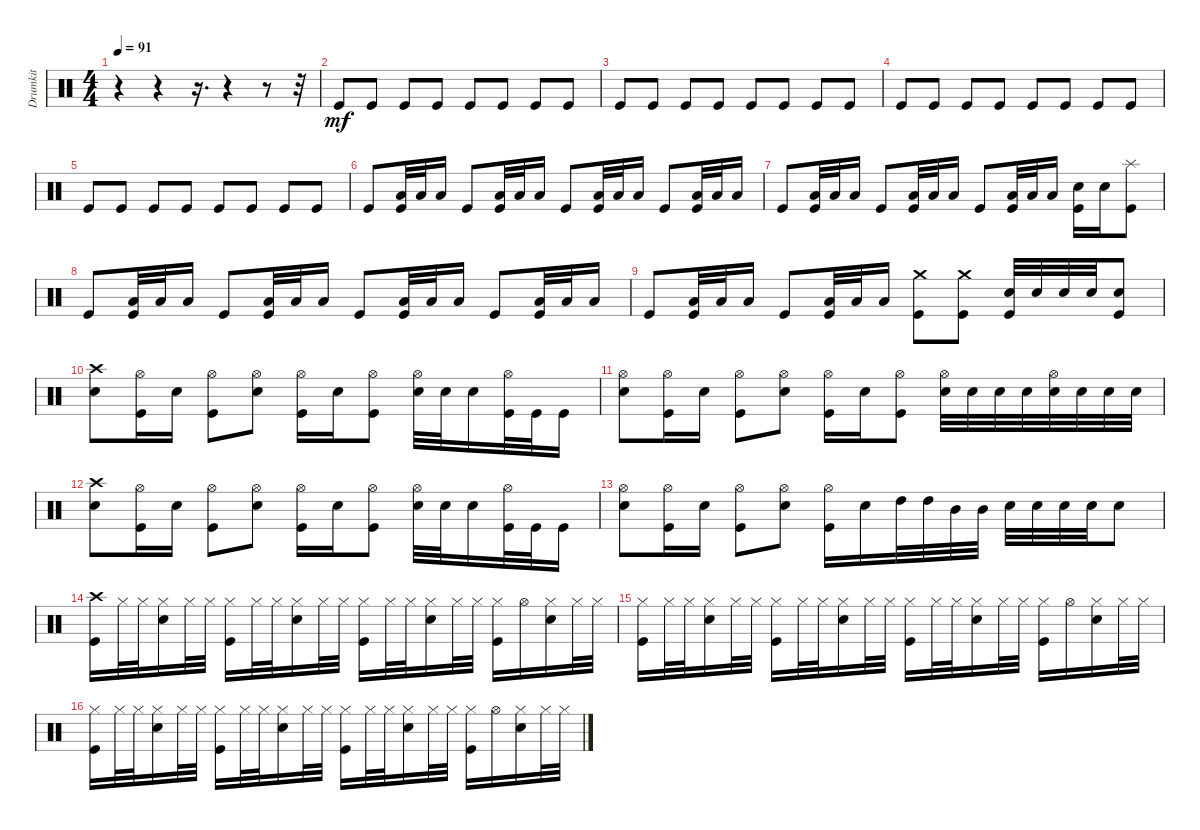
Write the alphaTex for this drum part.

\track ("Drumkit" "Drumkit") {instrument percussion}
\staff {score}
\articulation defaults
\ts (4 4)
\tempo 91
\clef neutral
\ks c
r.4{dy mf} r.4 r.16{d} r.4 r.8 r.32 |
"Kick (hit)".8 "Kick (hit)".8 "Kick (hit)".8 "Kick (hit)".8 "Kick (hit)".8 "Kick (hit)".8 "Kick (hit)".8 "Kick (hit)".8 |
"Kick (hit)".8 "Kick (hit)".8 "Kick (hit)".8 "Kick (hit)".8 "Kick (hit)".8 "Kick (hit)".8 "Kick (hit)".8 "Kick (hit)".8 |
"Kick (hit)".8 "Kick (hit)".8 "Kick (hit)".8 "Kick (hit)".8 "Kick (hit)".8 "Kick (hit)".8 "Kick (hit)".8 "Kick (hit)".8 |
"Kick (hit)".8 "Kick (hit)".8 "Kick (hit)".8 "Kick (hit)".8 "Kick (hit)".8 "Kick (hit)".8 "Kick (hit)".8 "Kick (hit)".8 |
"Kick (hit)".8 ("Low Floor Tom (hit)" "Kick (hit)").32 "Low Floor Tom (hit)".32 "Low Floor Tom (hit)".16 "Kick (hit)".8 ("Low Floor Tom (hit)" "Kick (hit)").32 "Low Floor Tom (hit)".32 "Low Floor Tom (hit)".16 "Kick (hit)".8 ("Low Floor Tom (hit)" "Kick (hit)").32 "Low Floor Tom (hit)".32 "Low Floor Tom (hit)".16 "Kick (hit)".8 ("Low Floor Tom (hit)" "Kick (hit)").32 "Low Floor Tom (hit)".32 "Low Floor Tom (hit)".16 |
"Kick (hit)".8 ("Low Floor Tom (hit)" "Kick (hit)").32 "Low Floor Tom (hit)".32 "Low Floor Tom (hit)".16 "Kick (hit)".8 ("Low Floor Tom (hit)" "Kick (hit)").32 "Low Floor Tom (hit)".32 "Low Floor Tom (hit)".16 "Kick (hit)".8 ("Low Floor Tom (hit)" "Kick (hit)").32 "Low Floor Tom (hit)".32 "Low Floor Tom (hit)".16 ("Snare (hit) 2" "Kick (hit)").16 "Snare (hit) 2".16 ("Splash (hit)" "Kick (hit)").8 |
"Kick (hit)".8 ("Low Floor Tom (hit)" "Kick (hit)").32 "Low Floor Tom (hit)".32 "Low Floor Tom (hit)".16 "Kick (hit)".8 ("Low Floor Tom (hit)" "Kick (hit)").32 "Low Floor Tom (hit)".32 "Low Floor Tom (hit)".16 "Kick (hit)".8 ("Low Floor Tom (hit)" "Kick (hit)").32 "Low Floor Tom (hit)".32 "Low Floor Tom (hit)".16 "Kick (hit)".8 ("Low Floor Tom (hit)" "Kick (hit)").32 "Low Floor Tom (hit)".32 "Low Floor Tom (hit)".16 |
"Kick (hit)".8 ("Low Floor Tom (hit)" "Kick (hit)").32 "Low Floor Tom (hit)".32 "Low Floor Tom (hit)".16 "Kick (hit)".8 ("Low Floor Tom (hit)" "Kick (hit)").32 "Low Floor Tom (hit)".32 "Low Floor Tom (hit)".16 ("Crash medium (hit)" "Kick (hit)").8 ("Crash medium (hit)" "Kick (hit)").8 ("Snare (hit) 2" "Kick (hit)").32 "Snare (hit) 2".32 "Snare (hit) 2".32 "Snare (hit) 2".32 ("Snare (hit) 2" "Kick (hit)").8 |
("Snare (hit) 2" "Crash high (hit)").8 ("Hi-Hat (open)" "Kick (hit)").16 "Snare (hit) 2".16 ("Hi-Hat (open)" "Kick (hit)").8 ("Snare (hit) 2" "Hi-Hat (open)").8 ("Hi-Hat (open)" "Kick (hit)").16 "Snare (hit) 2".16 ("Hi-Hat (open)" "Kick (hit)").8 ("Hi-Hat (open)" "Snare (hit) 2").32 "Snare (hit) 2".32 "Snare (hit) 2".16 ("Hi-Hat (open)" "Kick (hit)").32 "Kick (hit)".32 "Kick (hit)".16 |
("Snare (hit) 2" "Hi-Hat (open)").8 ("Hi-Hat (open)" "Kick (hit)").16 "Snare (hit) 2".16 ("Hi-Hat (open)" "Kick (hit)").8 ("Snare (hit) 2" "Hi-Hat (open)").8 ("Hi-Hat (open)" "Kick (hit)").16 "Snare (hit) 2".16 ("Hi-Hat (open)" "Kick (hit)").8 ("Hi-Hat (open)" "Snare (hit) 2").32 "Snare (hit) 2".32 "Snare (hit) 2".32 "Snare (hit) 2".32 ("Snare (hit) 2" "Hi-Hat (open)").32 "Snare (hit) 2".32 "Snare (hit) 2".32 "Snare (hit) 2".32 |
("Snare (hit) 2" "Crash high (hit)").8 ("Hi-Hat (open)" "Kick (hit)").16 "Snare (hit) 2".16 ("Hi-Hat (open)" "Kick (hit)").8 ("Snare (hit) 2" "Hi-Hat (open)").8 ("Hi-Hat (open)" "Kick (hit)").16 "Snare (hit) 2".16 ("Hi-Hat (open)" "Kick (hit)").8 ("Hi-Hat (open)" "Snare (hit) 2").32 "Snare (hit) 2".32 "Snare (hit) 2".16 ("Hi-Hat (open)" "Kick (hit)").32 "Kick (hit)".32 "Kick (hit)".16 |
("Snare (hit) 2" "Hi-Hat (open)").8 ("Hi-Hat (open)" "Kick (hit)").16 "Snare (hit) 2".16 ("Hi-Hat (open)" "Kick (hit)").8 ("Snare (hit) 2" "Hi-Hat (open)").8 ("Hi-Hat (open)" "Kick (hit)").16 "Snare (hit) 2".16 "High Tom (hit)".32 "High Tom (hit)".32 "Mid Tom (hit)".32 "Mid Tom (hit)".32 "Snare (hit) 2".32 "Snare (hit) 2".32 "Snare (hit) 2".32 "Snare (hit) 2".32 "Snare (hit) 2".8 |
("Kick (hit)" "Crash high (hit)").16 "Hi-Hat (closed)".32 "Hi-Hat (closed)".32 ("Hi-Hat (closed)" "Snare (hit) 2").16 "Hi-Hat (closed)".32 "Hi-Hat (closed)".32 ("Hi-Hat (closed)" "Kick (hit)").16 "Hi-Hat (closed)".32 "Hi-Hat (closed)".32 ("Hi-Hat (closed)" "Snare (hit) 2").16 "Hi-Hat (closed)".32 "Hi-Hat (closed)".32 ("Hi-Hat (closed)" "Kick (hit)").16 "Hi-Hat (closed)".32 "Hi-Hat (closed)".32 ("Hi-Hat (closed)" "Snare (hit) 2").16 "Hi-Hat (closed)".32 "Hi-Hat (closed)".32 ("Hi-Hat (closed)" "Kick (hit)").16 "Hi-Hat (open)".16 ("Hi-Hat (closed)" "Snare (hit) 2").16 "Hi-Hat (closed)".32 "Hi-Hat (closed)".32 |
("Hi-Hat (closed)" "Kick (hit)").16 "Hi-Hat (closed)".32 "Hi-Hat (closed)".32 ("Snare (hit) 2" "Hi-Hat (closed)").16 "Hi-Hat (closed)".32 "Hi-Hat (closed)".32 ("Kick (hit)" "Hi-Hat (closed)").16 "Hi-Hat (closed)".32 "Hi-Hat (closed)".32 ("Snare (hit) 2" "Hi-Hat (closed)").16 "Hi-Hat (closed)".32 "Hi-Hat (closed)".32 ("Kick (hit)" "Hi-Hat (closed)").16 "Hi-Hat (closed)".32 "Hi-Hat (closed)".32 ("Snare (hit) 2" "Hi-Hat (closed)").16 "Hi-Hat (closed)".32 "Hi-Hat (closed)".32 ("Kick (hit)" "Hi-Hat (closed)").16 "Hi-Hat (open)".16 ("Snare (hit) 2" "Hi-Hat (closed)").16 "Hi-Hat (closed)".32 "Hi-Hat (closed)".32 |
("Kick (hit)" "Hi-Hat (closed)").16 "Hi-Hat (closed)".32 "Hi-Hat (closed)".32 ("Hi-Hat (closed)" "Snare (hit) 2").16 "Hi-Hat (closed)".32 "Hi-Hat (closed)".32 ("Hi-Hat (closed)" "Kick (hit)").16 "Hi-Hat (closed)".32 "Hi-Hat (closed)".32 ("Hi-Hat (closed)" "Snare (hit) 2").16 "Hi-Hat (closed)".32 "Hi-Hat (closed)".32 ("Hi-Hat (closed)" "Kick (hit)").16 "Hi-Hat (closed)".32 "Hi-Hat (closed)".32 ("Hi-Hat (closed)" "Snare (hit) 2").16 "Hi-Hat (closed)".32 "Hi-Hat (closed)".32 ("Hi-Hat (closed)" "Kick (hit)").16 "Hi-Hat (open)".16 ("Hi-Hat (closed)" "Snare (hit) 2").16 "Hi-Hat (closed)".32 "Hi-Hat (closed)".32
